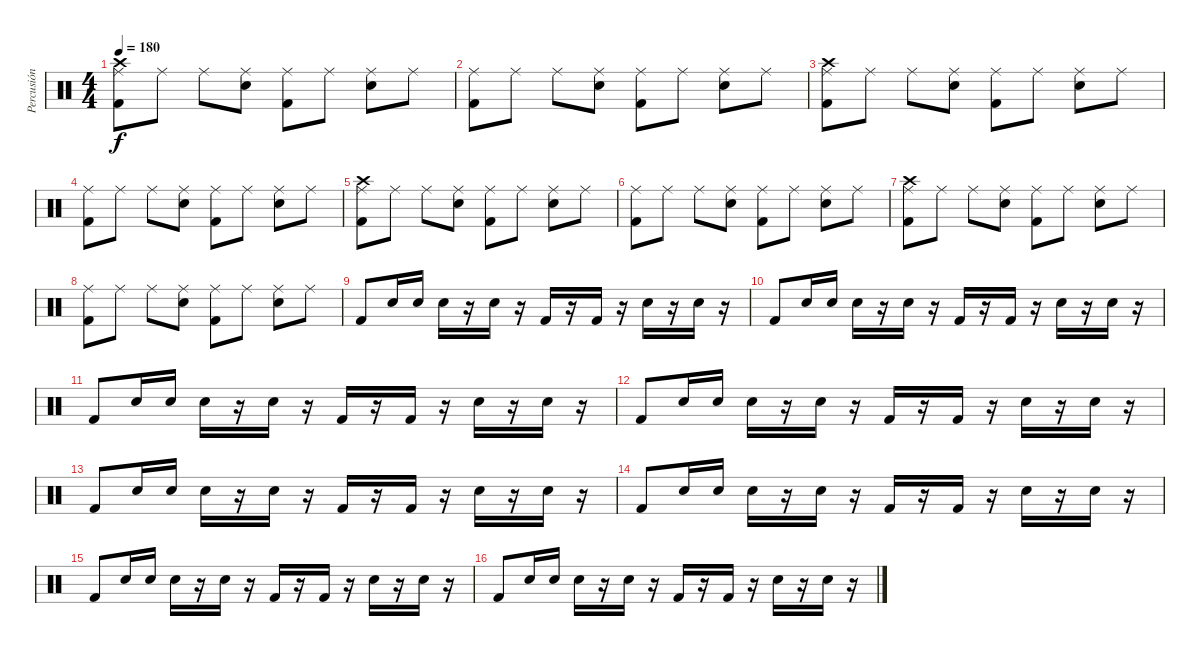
\track ("Percusión" "Percusión") {instrument percussion}
\staff {score}
\articulation defaults
\ts (4 4)
\tempo 180
\clef neutral
\ks c
("Kick (hit) 2" "Crash high (hit)" "Ride (middle)").8{dy f} "Ride (middle)".8 "Ride (middle)".8 ("Snare (hit) 2" "Ride (middle)").8 ("Kick (hit) 2" "Ride (middle)").8 "Ride (middle)".8 ("Snare (hit) 2" "Ride (middle)").8 "Ride (middle)".8 |
("Kick (hit) 2" "Ride (middle)").8 "Ride (middle)".8 "Ride (middle)".8 ("Snare (hit) 2" "Ride (middle)").8 ("Kick (hit) 2" "Ride (middle)").8 "Ride (middle)".8 ("Snare (hit) 2" "Ride (middle)").8 "Ride (middle)".8 |
("Kick (hit) 2" "Crash high (hit)" "Ride (middle)").8 "Ride (middle)".8 "Ride (middle)".8 ("Snare (hit) 2" "Ride (middle)").8 ("Kick (hit) 2" "Ride (middle)").8 "Ride (middle)".8 ("Snare (hit) 2" "Ride (middle)").8 "Ride (middle)".8 |
("Kick (hit) 2" "Ride (middle)").8 "Ride (middle)".8 "Ride (middle)".8 ("Snare (hit) 2" "Ride (middle)").8 ("Kick (hit) 2" "Ride (middle)").8 "Ride (middle)".8 ("Snare (hit) 2" "Ride (middle)").8 "Ride (middle)".8 |
("Kick (hit) 2" "Crash high (hit)" "Ride (middle)").8 "Ride (middle)".8 "Ride (middle)".8 ("Snare (hit) 2" "Ride (middle)").8 ("Kick (hit) 2" "Ride (middle)").8 "Ride (middle)".8 ("Snare (hit) 2" "Ride (middle)").8 "Ride (middle)".8 |
("Kick (hit) 2" "Ride (middle)").8 "Ride (middle)".8 "Ride (middle)".8 ("Snare (hit) 2" "Ride (middle)").8 ("Kick (hit) 2" "Ride (middle)").8 "Ride (middle)".8 ("Snare (hit) 2" "Ride (middle)").8 "Ride (middle)".8 |
("Kick (hit) 2" "Crash high (hit)" "Ride (middle)").8 "Ride (middle)".8 "Ride (middle)".8 ("Snare (hit) 2" "Ride (middle)").8 ("Kick (hit) 2" "Ride (middle)").8 "Ride (middle)".8 ("Snare (hit) 2" "Ride (middle)").8 "Ride (middle)".8 |
("Kick (hit) 2" "Ride (middle)").8 "Ride (middle)".8 "Ride (middle)".8 ("Snare (hit) 2" "Ride (middle)").8 ("Kick (hit) 2" "Ride (middle)").8 "Ride (middle)".8 ("Snare (hit) 2" "Ride (middle)").8 "Ride (middle)".8 |
"Kick (hit) 2".8 "Snare (hit) 2".16{volume 10} "Snare (hit) 2".16 "Snare (hit) 2".16 r.16 "Snare (hit) 2".16{volume 13} r.16 "Kick (hit) 2".16 r.16 "Kick (hit) 2".16 r.16 "Snare (hit) 2".16 r.16 "Snare (hit) 2".16 r.16 |
"Kick (hit) 2".8 "Snare (hit) 2".16{volume 10} "Snare (hit) 2".16 "Snare (hit) 2".16 r.16 "Snare (hit) 2".16{volume 13} r.16 "Kick (hit) 2".16 r.16 "Kick (hit) 2".16 r.16 "Snare (hit) 2".16 r.16 "Snare (hit) 2".16 r.16 |
"Kick (hit) 2".8 "Snare (hit) 2".16{volume 10} "Snare (hit) 2".16 "Snare (hit) 2".16 r.16 "Snare (hit) 2".16{volume 13} r.16 "Kick (hit) 2".16 r.16 "Kick (hit) 2".16 r.16 "Snare (hit) 2".16 r.16 "Snare (hit) 2".16 r.16 |
"Kick (hit) 2".8 "Snare (hit) 2".16{volume 10} "Snare (hit) 2".16 "Snare (hit) 2".16 r.16 "Snare (hit) 2".16{volume 13} r.16 "Kick (hit) 2".16 r.16 "Kick (hit) 2".16 r.16 "Snare (hit) 2".16 r.16 "Snare (hit) 2".16 r.16 |
"Kick (hit) 2".8 "Snare (hit) 2".16{volume 10} "Snare (hit) 2".16 "Snare (hit) 2".16 r.16 "Snare (hit) 2".16{volume 13} r.16 "Kick (hit) 2".16 r.16 "Kick (hit) 2".16 r.16 "Snare (hit) 2".16 r.16 "Snare (hit) 2".16 r.16 |
"Kick (hit) 2".8 "Snare (hit) 2".16{volume 10} "Snare (hit) 2".16 "Snare (hit) 2".16 r.16 "Snare (hit) 2".16{volume 13} r.16 "Kick (hit) 2".16 r.16 "Kick (hit) 2".16 r.16 "Snare (hit) 2".16 r.16 "Snare (hit) 2".16 r.16 |
"Kick (hit) 2".8 "Snare (hit) 2".16{volume 10} "Snare (hit) 2".16 "Snare (hit) 2".16 r.16 "Snare (hit) 2".16{volume 13} r.16 "Kick (hit) 2".16 r.16 "Kick (hit) 2".16 r.16 "Snare (hit) 2".16 r.16 "Snare (hit) 2".16 r.16 |
"Kick (hit) 2".8 "Snare (hit) 2".16{volume 10} "Snare (hit) 2".16 "Snare (hit) 2".16 r.16 "Snare (hit) 2".16{volume 13} r.16 "Kick (hit) 2".16 r.16 "Kick (hit) 2".16 r.16 "Snare (hit) 2".16 r.16 "Snare (hit) 2".16 r.16
